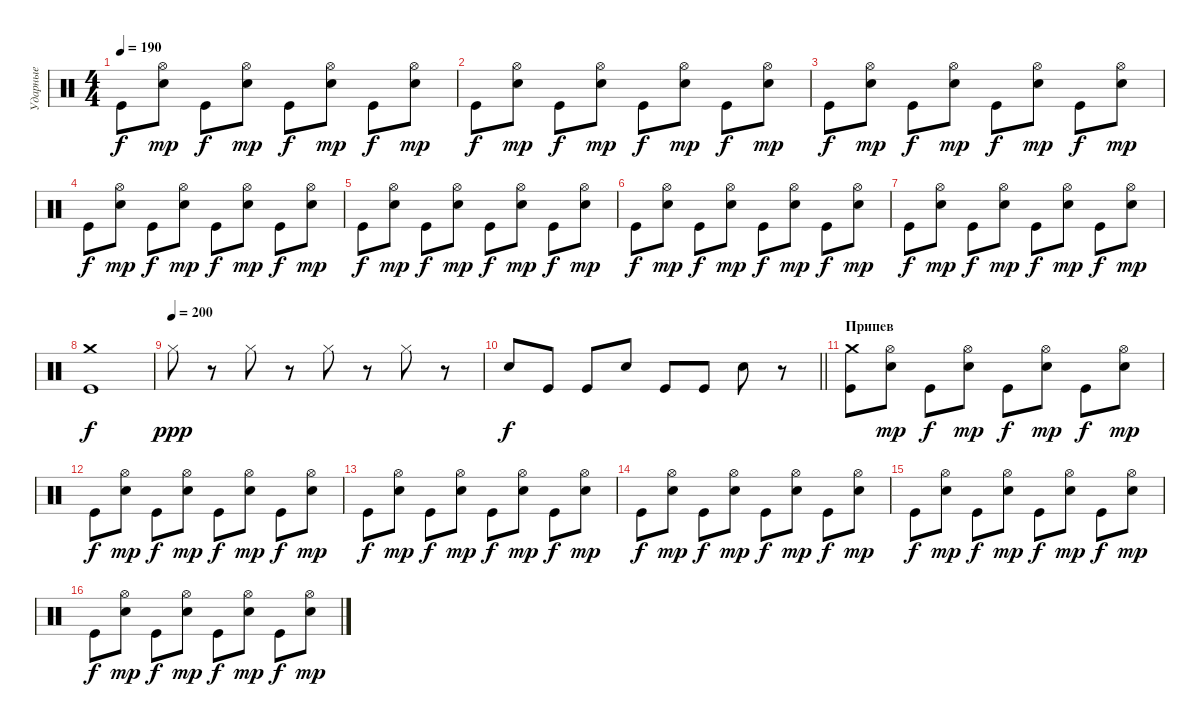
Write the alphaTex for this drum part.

\track ("Ударные" "Ударные") {instrument percussion}
\staff {score}
\articulation defaults
\ts (4 4)
\tempo 190
\clef neutral
\ks c "Kick (hit)".8{dy f}
("Hi-Hat (open)" "Electric Snare (hit)").8{dy mp} "Kick (hit)".8{dy f} ("Hi-Hat (open)" "Electric Snare (hit)").8{dy mp} "Kick (hit)".8{dy f} ("Hi-Hat (open)" "Electric Snare (hit)").8{dy mp} "Kick (hit)".8{dy f} ("Hi-Hat (open)" "Electric Snare (hit)").8{dy mp} |
"Kick (hit)".8{dy f} ("Hi-Hat (open)" "Electric Snare (hit)").8{dy mp} "Kick (hit)".8{dy f} ("Hi-Hat (open)" "Electric Snare (hit)").8{dy mp} "Kick (hit)".8{dy f} ("Hi-Hat (open)" "Electric Snare (hit)").8{dy mp} "Kick (hit)".8{dy f} ("Hi-Hat (open)" "Electric Snare (hit)").8{dy mp} |
"Kick (hit)".8{dy f} ("Hi-Hat (open)" "Electric Snare (hit)").8{dy mp} "Kick (hit)".8{dy f} ("Hi-Hat (open)" "Electric Snare (hit)").8{dy mp} "Kick (hit)".8{dy f} ("Hi-Hat (open)" "Electric Snare (hit)").8{dy mp} "Kick (hit)".8{dy f} ("Hi-Hat (open)" "Electric Snare (hit)").8{dy mp} |
"Kick (hit)".8{dy f} ("Hi-Hat (open)" "Electric Snare (hit)").8{dy mp} "Kick (hit)".8{dy f} ("Hi-Hat (open)" "Electric Snare (hit)").8{dy mp} "Kick (hit)".8{dy f} ("Hi-Hat (open)" "Electric Snare (hit)").8{dy mp} "Kick (hit)".8{dy f} ("Hi-Hat (open)" "Electric Snare (hit)").8{dy mp} |
"Kick (hit)".8{dy f} ("Hi-Hat (open)" "Electric Snare (hit)").8{dy mp} "Kick (hit)".8{dy f} ("Hi-Hat (open)" "Electric Snare (hit)").8{dy mp} "Kick (hit)".8{dy f} ("Hi-Hat (open)" "Electric Snare (hit)").8{dy mp} "Kick (hit)".8{dy f} ("Hi-Hat (open)" "Electric Snare (hit)").8{dy mp} |
"Kick (hit)".8{dy f} ("Hi-Hat (open)" "Electric Snare (hit)").8{dy mp} "Kick (hit)".8{dy f} ("Hi-Hat (open)" "Electric Snare (hit)").8{dy mp} "Kick (hit)".8{dy f} ("Hi-Hat (open)" "Electric Snare (hit)").8{dy mp} "Kick (hit)".8{dy f} ("Hi-Hat (open)" "Electric Snare (hit)").8{dy mp} |
"Kick (hit)".8{dy f} ("Hi-Hat (open)" "Electric Snare (hit)").8{dy mp} "Kick (hit)".8{dy f} ("Hi-Hat (open)" "Electric Snare (hit)").8{dy mp} "Kick (hit)".8{dy f} ("Hi-Hat (open)" "Electric Snare (hit)").8{dy mp} "Kick (hit)".8{dy f} ("Hi-Hat (open)" "Electric Snare (hit)").8{dy mp} |
("Crash medium (hit)" "Kick (hit)").1{dy f} |
\tempo (200)
"Hi-Hat (closed)".8{dy ppp} r.8 "Hi-Hat (closed)".8 r.8 "Hi-Hat (closed)".8 r.8 "Hi-Hat (closed)".8 r.8 |
\barLineRight lightlight "Electric Snare (hit)".8{dy f} "Kick (hit)".8 "Kick (hit)".8 "Electric Snare (hit)".8 "Kick (hit)".8 "Kick (hit)".8 "Electric Snare (hit)".8
r.8 |
\section ("" "Припев")
("Crash medium (hit)" "Kick (hit)").8 ("Hi-Hat (open)" "Electric Snare (hit)").8{dy mp} "Kick (hit)".8{dy f} ("Hi-Hat (open)" "Electric Snare (hit)").8{dy mp} "Kick (hit)".8{dy f} ("Hi-Hat (open)" "Electric Snare (hit)").8{dy mp} "Kick (hit)".8{dy f} ("Hi-Hat (open)" "Electric Snare (hit)").8{dy mp} |
"Kick (hit)".8{dy f} ("Hi-Hat (open)" "Electric Snare (hit)").8{dy mp} "Kick (hit)".8{dy f} ("Hi-Hat (open)" "Electric Snare (hit)").8{dy mp} "Kick (hit)".8{dy f} ("Hi-Hat (open)" "Electric Snare (hit)").8{dy mp} "Kick (hit)".8{dy f} ("Hi-Hat (open)" "Electric Snare (hit)").8{dy mp} |
"Kick (hit)".8{dy f} ("Hi-Hat (open)" "Electric Snare (hit)").8{dy mp} "Kick (hit)".8{dy f} ("Hi-Hat (open)" "Electric Snare (hit)").8{dy mp} "Kick (hit)".8{dy f} ("Hi-Hat (open)" "Electric Snare (hit)").8{dy mp} "Kick (hit)".8{dy f} ("Hi-Hat (open)" "Electric Snare (hit)").8{dy mp} |
"Kick (hit)".8{dy f} ("Hi-Hat (open)" "Electric Snare (hit)").8{dy mp} "Kick (hit)".8{dy f} ("Hi-Hat (open)" "Electric Snare (hit)").8{dy mp} "Kick (hit)".8{dy f} ("Hi-Hat (open)" "Electric Snare (hit)").8{dy mp} "Kick (hit)".8{dy f} ("Hi-Hat (open)" "Electric Snare (hit)").8{dy mp} |
"Kick (hit)".8{dy f} ("Hi-Hat (open)" "Electric Snare (hit)").8{dy mp} "Kick (hit)".8{dy f} ("Hi-Hat (open)" "Electric Snare (hit)").8{dy mp} "Kick (hit)".8{dy f} ("Hi-Hat (open)" "Electric Snare (hit)").8{dy mp} "Kick (hit)".8{dy f} ("Hi-Hat (open)" "Electric Snare (hit)").8{dy mp} |
"Kick (hit)".8{dy f} ("Hi-Hat (open)" "Electric Snare (hit)").8{dy mp} "Kick (hit)".8{dy f} ("Hi-Hat (open)" "Electric Snare (hit)").8{dy mp} "Kick (hit)".8{dy f} ("Hi-Hat (open)" "Electric Snare (hit)").8{dy mp} "Kick (hit)".8{dy f} ("Hi-Hat (open)" "Electric Snare (hit)").8{dy mp}
